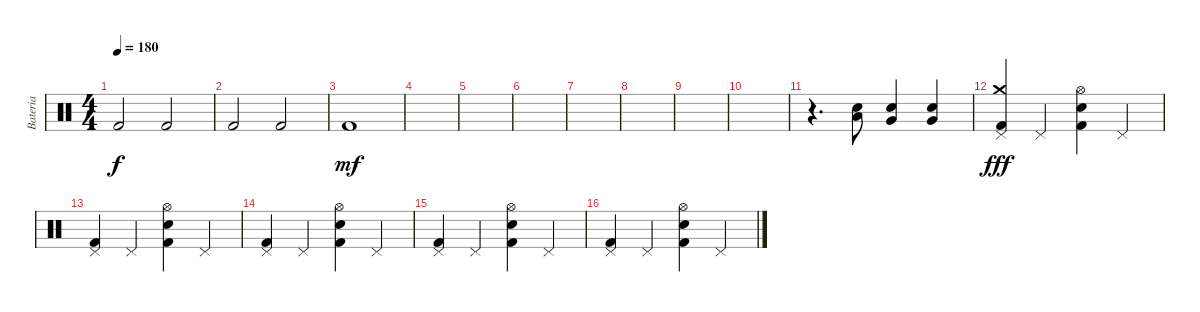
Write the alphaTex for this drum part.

\track ("Bateria" "Bateria") {instrument percussion}
\staff {score}
\articulation defaults
\ts (4 4)
\tempo 180
\clef neutral
\ks c "Kick (hit) 2".2{dy f} "Kick (hit) 2".2
|
"Kick (hit) 2".2 "Kick (hit) 2".2 |
"Kick (hit) 2".1{dy mf} |
|
|
|
|
|
|
|
r.4{d} ("Electric Snare (hit)" "Low Tom (hit)").8 ("Electric Snare (hit)" "Very Low Tom (hit)").4 ("Electric Snare (hit)" "Very Low Tom (hit)").4 |
("Crash medium (hit)" "Pedal Hi-Hat (hit)" "Kick (hit) 2").4{dy fff} "Pedal Hi-Hat (hit)".4 ("Electric Snare (hit)" "Hi-Hat (open)" "Kick (hit) 2").4 "Pedal Hi-Hat (hit)".4 |
("Pedal Hi-Hat (hit)" "Kick (hit) 2").4 "Pedal Hi-Hat (hit)".4 ("Electric Snare (hit)" "Hi-Hat (open)" "Kick (hit) 2").4 "Pedal Hi-Hat (hit)".4 |
("Pedal Hi-Hat (hit)" "Kick (hit) 2").4 "Pedal Hi-Hat (hit)".4 ("Electric Snare (hit)" "Hi-Hat (open)" "Kick (hit) 2").4 "Pedal Hi-Hat (hit)".4 |
("Pedal Hi-Hat (hit)" "Kick (hit) 2").4 "Pedal Hi-Hat (hit)".4 ("Electric Snare (hit)" "Hi-Hat (open)" "Kick (hit) 2").4 "Pedal Hi-Hat (hit)".4 |
("Pedal Hi-Hat (hit)" "Kick (hit) 2").4 "Pedal Hi-Hat (hit)".4 ("Electric Snare (hit)" "Hi-Hat (open)" "Kick (hit) 2").4 "Pedal Hi-Hat (hit)".4
